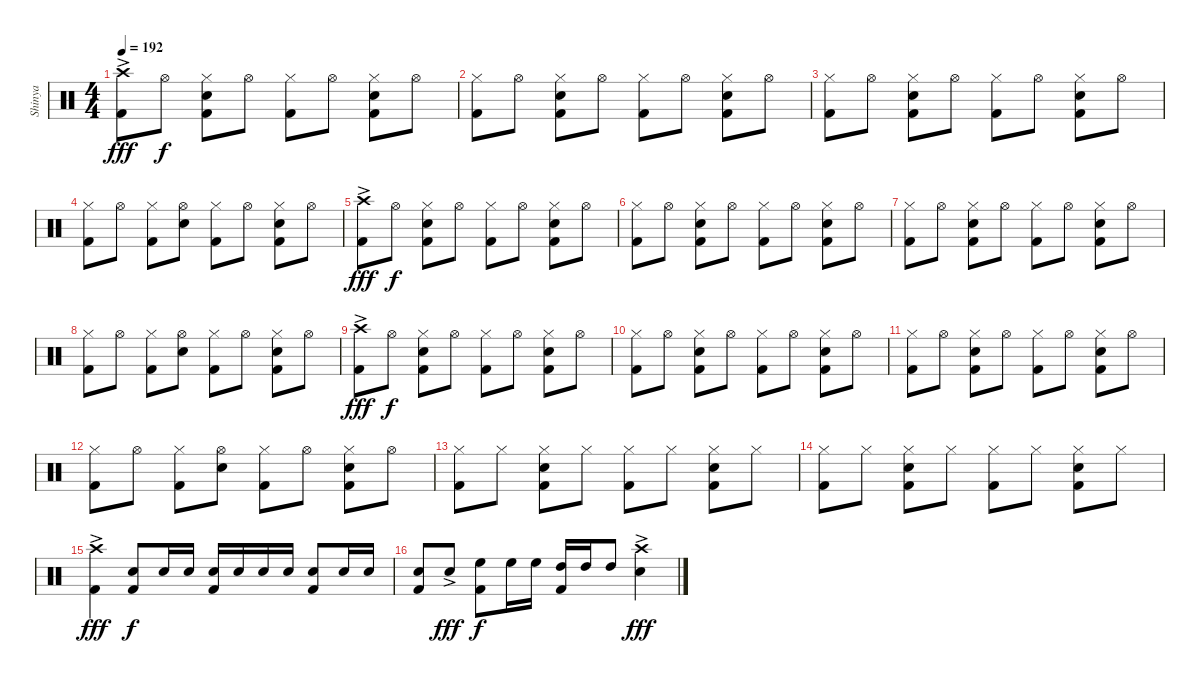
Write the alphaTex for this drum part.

\track ("Shinya" "Shinya") {instrument percussion}
\staff {score}
\articulation defaults
\ts (4 4)
\tempo 192
\clef neutral
\ks c
("Crash high (hit)"{ac} "Kick (hit) 2").8{dy fff} "Hi-Hat (open)".8{dy f} ("Hi-Hat (closed)" "Snare (hit) 2" "Kick (hit) 2").8 "Hi-Hat (open)".8 ("Hi-Hat (closed)" "Kick (hit) 2").8 "Hi-Hat (open)".8 ("Hi-Hat (closed)" "Snare (hit) 2" "Kick (hit) 2").8 "Hi-Hat (open)".8 |
("Hi-Hat (closed)" "Kick (hit) 2").8 "Hi-Hat (open)".8 ("Hi-Hat (closed)" "Snare (hit) 2" "Kick (hit) 2").8 "Hi-Hat (open)".8 ("Hi-Hat (closed)" "Kick (hit) 2").8 "Hi-Hat (open)".8 ("Hi-Hat (closed)" "Snare (hit) 2" "Kick (hit) 2").8 "Hi-Hat (open)".8 |
("Hi-Hat (closed)" "Kick (hit) 2").8 "Hi-Hat (open)".8 ("Hi-Hat (closed)" "Snare (hit) 2" "Kick (hit) 2").8 "Hi-Hat (open)".8 ("Hi-Hat (closed)" "Kick (hit) 2").8 "Hi-Hat (open)".8 ("Hi-Hat (closed)" "Snare (hit) 2" "Kick (hit) 2").8 "Hi-Hat (open)".8 |
("Hi-Hat (closed)" "Kick (hit) 2").8 "Hi-Hat (open)".8 ("Hi-Hat (closed)" "Kick (hit) 2").8 ("Hi-Hat (open)" "Snare (hit) 2").8 ("Hi-Hat (closed)" "Kick (hit) 2").8 "Hi-Hat (open)".8 ("Hi-Hat (closed)" "Snare (hit) 2" "Kick (hit) 2").8 "Hi-Hat (open)".8 |
("Crash high (hit)"{ac} "Kick (hit) 2").8{dy fff} "Hi-Hat (open)".8{dy f} ("Hi-Hat (closed)" "Snare (hit) 2" "Kick (hit) 2").8 "Hi-Hat (open)".8 ("Hi-Hat (closed)" "Kick (hit) 2").8 "Hi-Hat (open)".8 ("Hi-Hat (closed)" "Snare (hit) 2" "Kick (hit) 2").8 "Hi-Hat (open)".8 |
("Hi-Hat (closed)" "Kick (hit) 2").8 "Hi-Hat (open)".8 ("Hi-Hat (closed)" "Snare (hit) 2" "Kick (hit) 2").8 "Hi-Hat (open)".8 ("Hi-Hat (closed)" "Kick (hit) 2").8 "Hi-Hat (open)".8 ("Hi-Hat (closed)" "Snare (hit) 2" "Kick (hit) 2").8 "Hi-Hat (open)".8 |
("Hi-Hat (closed)" "Kick (hit) 2").8 "Hi-Hat (open)".8 ("Hi-Hat (closed)" "Snare (hit) 2" "Kick (hit) 2").8 "Hi-Hat (open)".8 ("Hi-Hat (closed)" "Kick (hit) 2").8 "Hi-Hat (open)".8 ("Hi-Hat (closed)" "Snare (hit) 2" "Kick (hit) 2").8 "Hi-Hat (open)".8 |
("Hi-Hat (closed)" "Kick (hit) 2").8 "Hi-Hat (open)".8 ("Hi-Hat (closed)" "Kick (hit) 2").8 ("Hi-Hat (open)" "Snare (hit) 2").8 ("Hi-Hat (closed)" "Kick (hit) 2").8 "Hi-Hat (open)".8 ("Hi-Hat (closed)" "Snare (hit) 2" "Kick (hit) 2").8 "Hi-Hat (open)".8 |
("Crash high (hit)"{ac} "Kick (hit) 2").8{dy fff} "Hi-Hat (open)".8{dy f} ("Hi-Hat (closed)" "Snare (hit) 2" "Kick (hit) 2").8 "Hi-Hat (open)".8 ("Hi-Hat (closed)" "Kick (hit) 2").8 "Hi-Hat (open)".8 ("Hi-Hat (closed)" "Snare (hit) 2" "Kick (hit) 2").8 "Hi-Hat (open)".8 |
("Hi-Hat (closed)" "Kick (hit) 2").8 "Hi-Hat (open)".8 ("Hi-Hat (closed)" "Snare (hit) 2" "Kick (hit) 2").8 "Hi-Hat (open)".8 ("Hi-Hat (closed)" "Kick (hit) 2").8 "Hi-Hat (open)".8 ("Hi-Hat (closed)" "Snare (hit) 2" "Kick (hit) 2").8 "Hi-Hat (open)".8 |
("Hi-Hat (closed)" "Kick (hit) 2").8 "Hi-Hat (open)".8 ("Hi-Hat (closed)" "Snare (hit) 2" "Kick (hit) 2").8 "Hi-Hat (open)".8 ("Hi-Hat (closed)" "Kick (hit) 2").8 "Hi-Hat (open)".8 ("Hi-Hat (closed)" "Snare (hit) 2" "Kick (hit) 2").8 "Hi-Hat (open)".8 |
("Hi-Hat (closed)" "Kick (hit) 2").8 "Hi-Hat (open)".8 ("Hi-Hat (closed)" "Kick (hit) 2").8 ("Hi-Hat (open)" "Snare (hit) 2").8 ("Hi-Hat (closed)" "Kick (hit) 2").8 "Hi-Hat (open)".8 ("Hi-Hat (closed)" "Snare (hit) 2" "Kick (hit) 2").8 "Hi-Hat (open)".8 |
("Hi-Hat (closed)" "Kick (hit) 2").8 "Hi-Hat (closed)".8 ("Hi-Hat (closed)" "Snare (hit) 2" "Kick (hit) 2").8 "Hi-Hat (closed)".8 ("Hi-Hat (closed)" "Kick (hit) 2").8 "Hi-Hat (closed)".8 ("Hi-Hat (closed)" "Snare (hit) 2" "Kick (hit) 2").8 "Hi-Hat (closed)".8 |
("Hi-Hat (closed)" "Kick (hit) 2").8 "Hi-Hat (closed)".8 ("Hi-Hat (closed)" "Snare (hit) 2" "Kick (hit) 2").8 "Hi-Hat (closed)".8 ("Hi-Hat (closed)" "Kick (hit) 2").8 "Hi-Hat (closed)".8 ("Hi-Hat (closed)" "Snare (hit) 2" "Kick (hit) 2").8 "Hi-Hat (closed)".8 |
("Crash high (hit)"{ac} "Kick (hit) 2").4{dy fff} ("Snare (hit) 2" "Kick (hit) 2").8{dy f} "Snare (hit) 2".16 "Snare (hit) 2".16 ("Snare (hit) 2" "Kick (hit) 2").16 "Snare (hit) 2".16 "Snare (hit) 2".16 "Snare (hit) 2".16 ("Snare (hit) 2" "Kick (hit) 2").8 "Snare (hit) 2".16 "Snare (hit) 2".16 |
("Snare (hit) 2" "Kick (hit) 2").8 "Snare (hit) 2"{ac}.8{dy fff} ("High Floor Tom (hit)" "Kick (hit) 2").8{dy f} "High Floor Tom (hit)".16 "High Floor Tom (hit)".16 ("High Tom (hit)" "Kick (hit) 2").16 "High Tom (hit)".16 "High Tom (hit)".8 ("Crash high (hit)"{ac} "Snare (hit) 2").4{dy fff}
